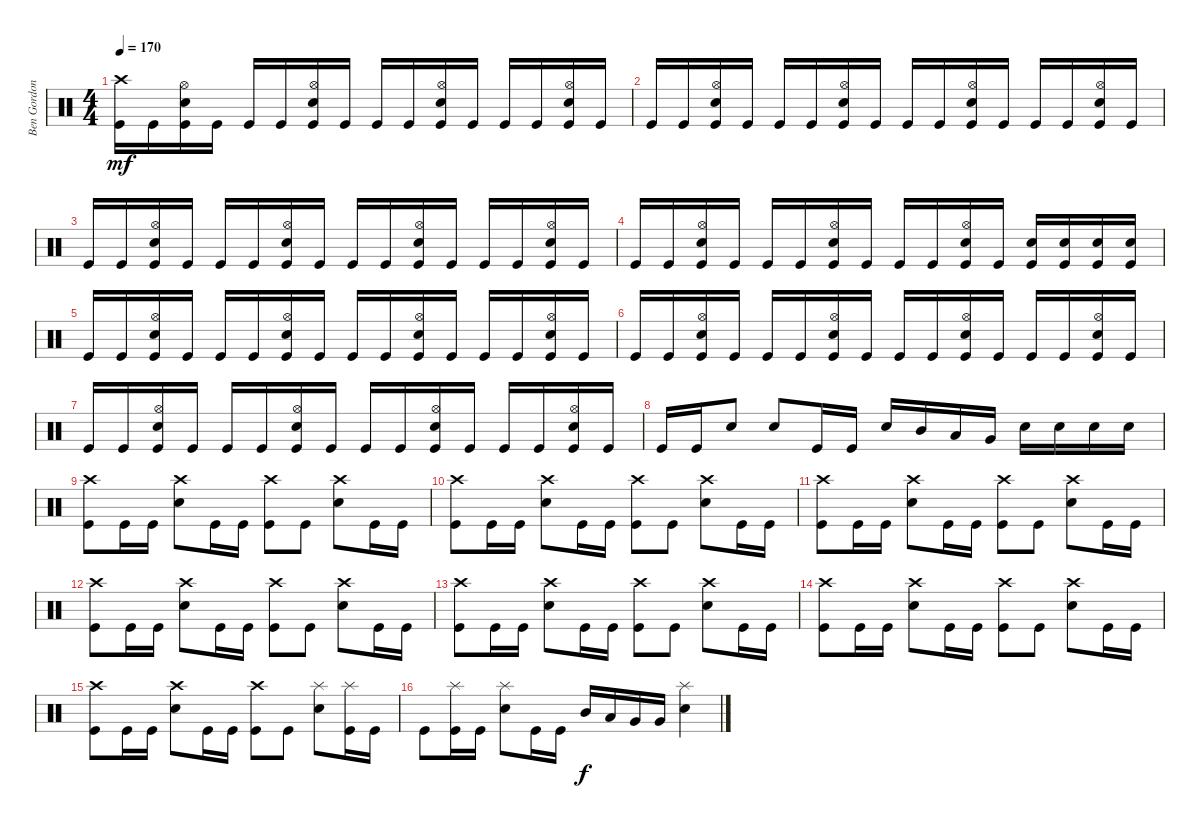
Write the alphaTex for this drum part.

\track ("Ben Gordon" "Ben Gordon") {instrument percussion}
\staff {score}
\articulation defaults
\ts (4 4)
\tempo 170
\clef neutral
\ks c
("Crash high (hit)" "Kick (hit)").16{dy mf} "Kick (hit)".16 ("Hi-Hat (open)" "Electric Snare (hit)" "Kick (hit)").16 "Kick (hit)".16 "Kick (hit)".16 "Kick (hit)".16 ("Hi-Hat (open)" "Electric Snare (hit)" "Kick (hit)").16 "Kick (hit)".16 "Kick (hit)".16 "Kick (hit)".16 ("Hi-Hat (open)" "Electric Snare (hit)" "Kick (hit)").16 "Kick (hit)".16 "Kick (hit)".16 "Kick (hit)".16 ("Hi-Hat (open)" "Electric Snare (hit)" "Kick (hit)").16 "Kick (hit)".16 |
"Kick (hit)".16 "Kick (hit)".16 ("Hi-Hat (open)" "Electric Snare (hit)" "Kick (hit)").16 "Kick (hit)".16 "Kick (hit)".16 "Kick (hit)".16 ("Hi-Hat (open)" "Electric Snare (hit)" "Kick (hit)").16 "Kick (hit)".16 "Kick (hit)".16 "Kick (hit)".16 ("Hi-Hat (open)" "Electric Snare (hit)" "Kick (hit)").16 "Kick (hit)".16 "Kick (hit)".16 "Kick (hit)".16 ("Hi-Hat (open)" "Electric Snare (hit)" "Kick (hit)").16 "Kick (hit)".16 |
"Kick (hit)".16 "Kick (hit)".16 ("Hi-Hat (open)" "Electric Snare (hit)" "Kick (hit)").16 "Kick (hit)".16 "Kick (hit)".16 "Kick (hit)".16 ("Hi-Hat (open)" "Electric Snare (hit)" "Kick (hit)").16 "Kick (hit)".16 "Kick (hit)".16 "Kick (hit)".16 ("Hi-Hat (open)" "Electric Snare (hit)" "Kick (hit)").16 "Kick (hit)".16 "Kick (hit)".16 "Kick (hit)".16 ("Hi-Hat (open)" "Electric Snare (hit)" "Kick (hit)").16 "Kick (hit)".16 |
"Kick (hit)".16 "Kick (hit)".16 ("Hi-Hat (open)" "Electric Snare (hit)" "Kick (hit)").16 "Kick (hit)".16 "Kick (hit)".16 "Kick (hit)".16 ("Hi-Hat (open)" "Electric Snare (hit)" "Kick (hit)").16 "Kick (hit)".16 "Kick (hit)".16 "Kick (hit)".16 ("Hi-Hat (open)" "Electric Snare (hit)" "Kick (hit)").16 "Kick (hit)".16 ("Electric Snare (hit)" "Kick (hit)").16 ("Electric Snare (hit)" "Kick (hit)").16 ("Electric Snare (hit)" "Kick (hit)").16 ("Electric Snare (hit)" "Kick (hit)").16 |
"Kick (hit)".16 "Kick (hit)".16 ("Hi-Hat (open)" "Electric Snare (hit)" "Kick (hit)").16 "Kick (hit)".16 "Kick (hit)".16 "Kick (hit)".16 ("Hi-Hat (open)" "Electric Snare (hit)" "Kick (hit)").16 "Kick (hit)".16 "Kick (hit)".16 "Kick (hit)".16 ("Hi-Hat (open)" "Electric Snare (hit)" "Kick (hit)").16 "Kick (hit)".16 "Kick (hit)".16 "Kick (hit)".16 ("Hi-Hat (open)" "Electric Snare (hit)" "Kick (hit)").16 "Kick (hit)".16 |
"Kick (hit)".16 "Kick (hit)".16 ("Hi-Hat (open)" "Electric Snare (hit)" "Kick (hit)").16 "Kick (hit)".16 "Kick (hit)".16 "Kick (hit)".16 ("Hi-Hat (open)" "Electric Snare (hit)" "Kick (hit)").16 "Kick (hit)".16 "Kick (hit)".16 "Kick (hit)".16 ("Hi-Hat (open)" "Electric Snare (hit)" "Kick (hit)").16 "Kick (hit)".16 "Kick (hit)".16 "Kick (hit)".16 ("Hi-Hat (open)" "Electric Snare (hit)" "Kick (hit)").16 "Kick (hit)".16 |
"Kick (hit)".16 "Kick (hit)".16 ("Hi-Hat (open)" "Electric Snare (hit)" "Kick (hit)").16 "Kick (hit)".16 "Kick (hit)".16 "Kick (hit)".16 ("Hi-Hat (open)" "Electric Snare (hit)" "Kick (hit)").16 "Kick (hit)".16 "Kick (hit)".16 "Kick (hit)".16 ("Hi-Hat (open)" "Electric Snare (hit)" "Kick (hit)").16 "Kick (hit)".16 "Kick (hit)".16 "Kick (hit)".16 ("Hi-Hat (open)" "Electric Snare (hit)" "Kick (hit)").16 "Kick (hit)".16 |
"Kick (hit)".16 "Kick (hit)".16 "Electric Snare (hit)".8 "Electric Snare (hit)".8 "Kick (hit)".16 "Kick (hit)".16 "Electric Snare (hit)".16 "Mid Tom (hit)".16 "Low Tom (hit)".16 "Very Low Tom (hit)".16 "Electric Snare (hit)".16 "Electric Snare (hit)".16 "Electric Snare (hit)".16 "Electric Snare (hit)".16 |
("Crash high (hit)" "Kick (hit)").8 "Kick (hit)".16 "Kick (hit)".16 ("Crash high (hit)" "Electric Snare (hit)").8 "Kick (hit)".16 "Kick (hit)".16 ("Crash high (hit)" "Kick (hit)").8 "Kick (hit)".8 ("Crash high (hit)" "Electric Snare (hit)").8 "Kick (hit)".16 "Kick (hit)".16 |
("Crash high (hit)" "Kick (hit)").8 "Kick (hit)".16 "Kick (hit)".16 ("Crash high (hit)" "Electric Snare (hit)").8 "Kick (hit)".16 "Kick (hit)".16 ("Crash high (hit)" "Kick (hit)").8 "Kick (hit)".8 ("Crash high (hit)" "Electric Snare (hit)").8 "Kick (hit)".16 "Kick (hit)".16 |
("Crash high (hit)" "Kick (hit)").8 "Kick (hit)".16 "Kick (hit)".16 ("Crash high (hit)" "Electric Snare (hit)").8 "Kick (hit)".16 "Kick (hit)".16 ("Crash high (hit)" "Kick (hit)").8 "Kick (hit)".8 ("Crash high (hit)" "Electric Snare (hit)").8 "Kick (hit)".16 "Kick (hit)".16 |
("Crash high (hit)" "Kick (hit)").8 "Kick (hit)".16 "Kick (hit)".16 ("Crash high (hit)" "Electric Snare (hit)").8 "Kick (hit)".16 "Kick (hit)".16 ("Crash high (hit)" "Kick (hit)").8 "Kick (hit)".8 ("Crash high (hit)" "Electric Snare (hit)").8 "Kick (hit)".16 "Kick (hit)".16 |
("Crash high (hit)" "Kick (hit)").8 "Kick (hit)".16 "Kick (hit)".16 ("Crash high (hit)" "Electric Snare (hit)").8 "Kick (hit)".16 "Kick (hit)".16 ("Crash high (hit)" "Kick (hit)").8 "Kick (hit)".8 ("Crash high (hit)" "Electric Snare (hit)").8 "Kick (hit)".16 "Kick (hit)".16 |
("Crash high (hit)" "Kick (hit)").8 "Kick (hit)".16 "Kick (hit)".16 ("Crash high (hit)" "Electric Snare (hit)").8 "Kick (hit)".16 "Kick (hit)".16 ("Crash high (hit)" "Kick (hit)").8 "Kick (hit)".8 ("Crash high (hit)" "Electric Snare (hit)").8 "Kick (hit)".16 "Kick (hit)".16 |
("Crash high (hit)" "Kick (hit)").8 "Kick (hit)".16 "Kick (hit)".16 ("Crash high (hit)" "Electric Snare (hit)").8 "Kick (hit)".16 "Kick (hit)".16 ("Crash high (hit)" "Kick (hit)").8 "Kick (hit)".8 ("Splash (hit)" "Electric Snare (hit)").8 ("Splash (hit)" "Kick (hit)").16 "Kick (hit)".16 |
"Kick (hit)".8 ("Splash (hit)" "Kick (hit)").16 "Kick (hit)".16 ("Splash (hit)" "Electric Snare (hit)").8 "Kick (hit)".16 "Kick (hit)".16 "Mid Tom (hit)".16{dy f} "Low Tom (hit)".16 "Very Low Tom (hit)".16 "Very Low Tom (hit)".16 ("Splash (hit)" "Electric Snare (hit)").4
